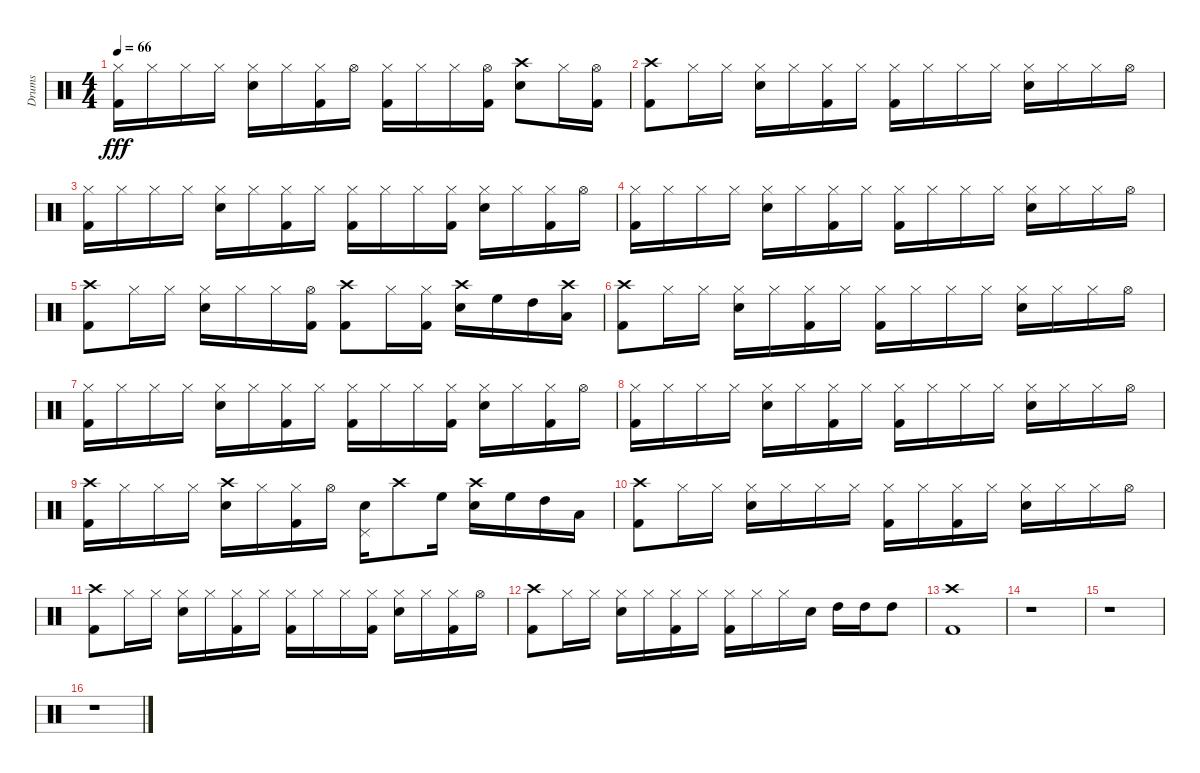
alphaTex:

\track ("Drums" "Drums") {instrument percussion}
\staff {score}
\articulation defaults
\ts (4 4)
\tempo 66
\clef neutral
\ks c
("Hi-Hat (closed)" "Kick (hit) 2").16{dy fff} "Hi-Hat (closed)".16 "Hi-Hat (closed)".16 "Hi-Hat (closed)".16 ("Hi-Hat (closed)" "Snare (hit) 2").16 "Hi-Hat (closed)".16 ("Hi-Hat (closed)" "Kick (hit) 2").16 "Hi-Hat (open)".16 ("Hi-Hat (closed)" "Kick (hit) 2").16 "Hi-Hat (closed)".16 "Hi-Hat (closed)".16 ("Hi-Hat (open)" "Kick (hit) 2").16 ("Crash high (hit)" "Snare (hit) 2").8 "Hi-Hat (closed)".16 ("Hi-Hat (open)" "Kick (hit) 2").16 |
("Crash high (hit)" "Kick (hit) 2").8 "Hi-Hat (closed)".16 "Hi-Hat (closed)".16 ("Hi-Hat (closed)" "Snare (hit) 2").16 "Hi-Hat (closed)".16 ("Hi-Hat (closed)" "Kick (hit) 2").16 "Hi-Hat (closed)".16 ("Hi-Hat (closed)" "Kick (hit) 2").16 "Hi-Hat (closed)".16 "Hi-Hat (closed)".16 "Hi-Hat (closed)".16 ("Hi-Hat (closed)" "Snare (hit) 2").16 "Hi-Hat (closed)".16 "Hi-Hat (closed)".16 "Hi-Hat (open)".16 |
("Hi-Hat (closed)" "Kick (hit) 2").16 "Hi-Hat (closed)".16 "Hi-Hat (closed)".16 "Hi-Hat (closed)".16 ("Hi-Hat (closed)" "Snare (hit) 2").16 "Hi-Hat (closed)".16 ("Hi-Hat (closed)" "Kick (hit) 2").16 "Hi-Hat (closed)".16 ("Hi-Hat (closed)" "Kick (hit) 2").16 "Hi-Hat (closed)".16 "Hi-Hat (closed)".16 ("Hi-Hat (closed)" "Kick (hit) 2").16 ("Hi-Hat (closed)" "Snare (hit) 2").16 "Hi-Hat (closed)".16 ("Hi-Hat (closed)" "Kick (hit) 2").16 "Hi-Hat (open)".16 |
("Hi-Hat (closed)" "Kick (hit) 2").16 "Hi-Hat (closed)".16 "Hi-Hat (closed)".16 "Hi-Hat (closed)".16 ("Hi-Hat (closed)" "Snare (hit) 2").16 "Hi-Hat (closed)".16 ("Hi-Hat (closed)" "Kick (hit) 2").16 "Hi-Hat (closed)".16 ("Hi-Hat (closed)" "Kick (hit) 2").16 "Hi-Hat (closed)".16 "Hi-Hat (closed)".16 "Hi-Hat (closed)".16 ("Hi-Hat (closed)" "Snare (hit) 2").16 "Hi-Hat (closed)".16 "Hi-Hat (closed)".16 "Hi-Hat (open)".16 |
("Crash high (hit)" "Kick (hit) 2").8 "Hi-Hat (closed)".16 "Hi-Hat (closed)".16 ("Hi-Hat (closed)" "Snare (hit) 2").16 "Hi-Hat (closed)".16 "Hi-Hat (closed)".16 ("Hi-Hat (open)" "Kick (hit) 2").16 ("Crash high (hit)" "Kick (hit) 2").8 "Hi-Hat (closed)".16 ("Hi-Hat (closed)" "Kick (hit) 2").16 ("Crash high (hit)" "Snare (hit) 2").16 "High Floor Tom (hit)".16 "High Tom (hit)".16 ("Crash high (hit)" "Low Tom (hit)").16 |
("Crash high (hit)" "Kick (hit) 2").8 "Hi-Hat (closed)".16 "Hi-Hat (closed)".16 ("Hi-Hat (closed)" "Snare (hit) 2").16 "Hi-Hat (closed)".16 ("Hi-Hat (closed)" "Kick (hit) 2").16 "Hi-Hat (closed)".16 ("Hi-Hat (closed)" "Kick (hit) 2").16 "Hi-Hat (closed)".16 "Hi-Hat (closed)".16 "Hi-Hat (closed)".16 ("Hi-Hat (closed)" "Snare (hit) 2").16 "Hi-Hat (closed)".16 "Hi-Hat (closed)".16 "Hi-Hat (open)".16 |
("Hi-Hat (closed)" "Kick (hit) 2").16 "Hi-Hat (closed)".16 "Hi-Hat (closed)".16 "Hi-Hat (closed)".16 ("Hi-Hat (closed)" "Snare (hit) 2").16 "Hi-Hat (closed)".16 ("Hi-Hat (closed)" "Kick (hit) 2").16 "Hi-Hat (closed)".16 ("Hi-Hat (closed)" "Kick (hit) 2").16 "Hi-Hat (closed)".16 "Hi-Hat (closed)".16 ("Hi-Hat (closed)" "Kick (hit) 2").16 ("Hi-Hat (closed)" "Snare (hit) 2").16 "Hi-Hat (closed)".16 ("Hi-Hat (closed)" "Kick (hit) 2").16 "Hi-Hat (open)".16 |
("Hi-Hat (closed)" "Kick (hit) 2").16 "Hi-Hat (closed)".16 "Hi-Hat (closed)".16 "Hi-Hat (closed)".16 ("Hi-Hat (closed)" "Snare (hit) 2").16 "Hi-Hat (closed)".16 ("Hi-Hat (closed)" "Kick (hit) 2").16 "Hi-Hat (closed)".16 ("Hi-Hat (closed)" "Kick (hit) 2").16 "Hi-Hat (closed)".16 "Hi-Hat (closed)".16 "Hi-Hat (closed)".16 ("Hi-Hat (closed)" "Snare (hit) 2").16 "Hi-Hat (closed)".16 "Hi-Hat (closed)".16 "Hi-Hat (open)".16 |
("Crash high (hit)" "Kick (hit) 2").16 "Hi-Hat (closed)".16 "Hi-Hat (closed)".16 "Hi-Hat (closed)".16 ("Crash high (hit)" "Snare (hit) 2").16 "Hi-Hat (closed)".16 ("Hi-Hat (closed)" "Kick (hit) 2").16 "Hi-Hat (open)".16 ("Pedal Hi-Hat (hit)" "Snare (hit) 2").16 "Crash high (hit)".8 "High Floor Tom (hit)".16 ("Crash high (hit)" "Snare (hit) 2").16 "High Floor Tom (hit)".16 "High Tom (hit)".16 "Low Tom (hit)".16 |
("Crash high (hit)" "Kick (hit) 2").8 "Hi-Hat (closed)".16 "Hi-Hat (closed)".16 ("Hi-Hat (closed)" "Snare (hit) 2").16 "Hi-Hat (closed)".16 "Hi-Hat (closed)".16 "Hi-Hat (closed)".16 ("Hi-Hat (closed)" "Kick (hit) 2").16 "Hi-Hat (closed)".16 ("Hi-Hat (closed)" "Kick (hit) 2").16 "Hi-Hat (closed)".16 ("Hi-Hat (closed)" "Snare (hit) 2").16 "Hi-Hat (closed)".16 "Hi-Hat (closed)".16 "Hi-Hat (open)".16 |
("Crash high (hit)" "Kick (hit) 2").8 "Hi-Hat (closed)".16 "Hi-Hat (closed)".16 ("Hi-Hat (closed)" "Snare (hit) 2").16 "Hi-Hat (closed)".16 ("Hi-Hat (closed)" "Kick (hit) 2").16 "Hi-Hat (closed)".16 ("Hi-Hat (closed)" "Kick (hit) 2").16 "Hi-Hat (closed)".16 "Hi-Hat (closed)".16 ("Hi-Hat (closed)" "Kick (hit) 2").16 ("Hi-Hat (closed)" "Snare (hit) 2").16 "Hi-Hat (closed)".16 ("Hi-Hat (closed)" "Kick (hit) 2").16 "Hi-Hat (open)".16 |
("Crash high (hit)" "Kick (hit) 2").8 "Hi-Hat (closed)".16 "Hi-Hat (closed)".16 ("Hi-Hat (closed)" "Snare (hit) 2").16 "Hi-Hat (closed)".16 ("Hi-Hat (closed)" "Kick (hit) 2").16 "Hi-Hat (closed)".16 ("Hi-Hat (closed)" "Kick (hit) 2").16 "Hi-Hat (closed)".16 "Hi-Hat (closed)".16 "Snare (hit) 2".16 "High Tom (hit)".16 "High Tom (hit)".16 "High Tom (hit)".8 |
("Crash high (hit)" "Kick (hit) 2").1 |
r.1 |
r.1 |
r.1
